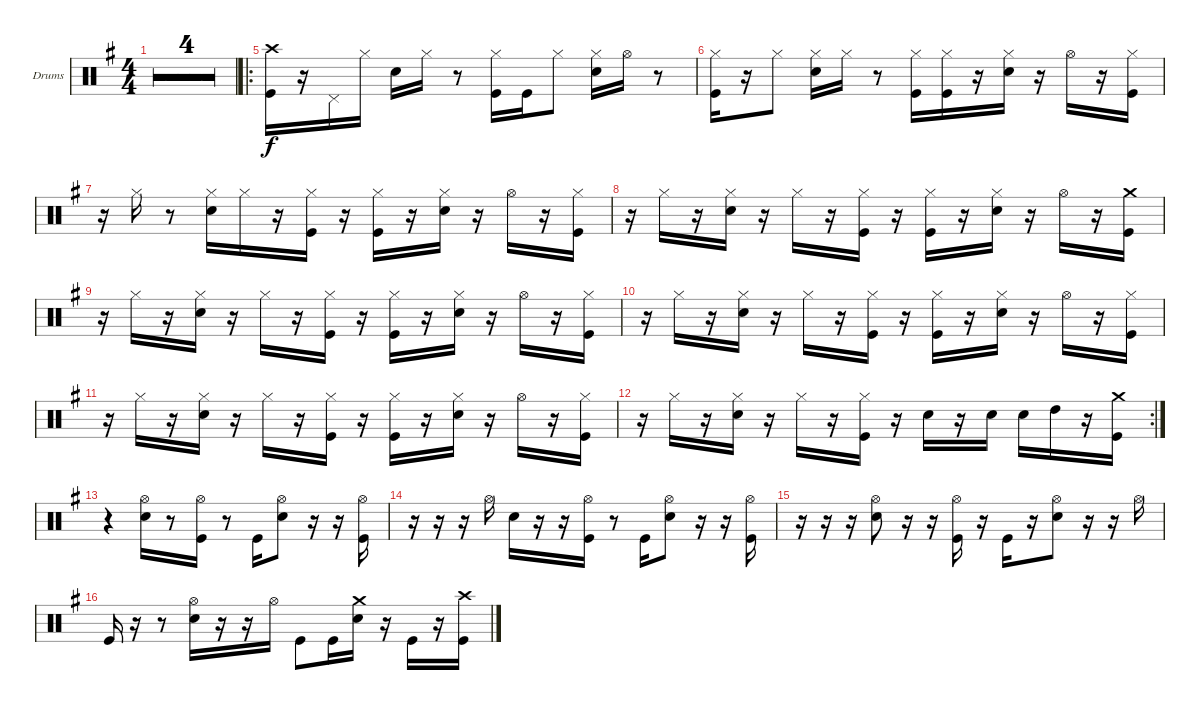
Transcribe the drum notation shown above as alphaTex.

\bracketExtendMode groupsimilarinstruments
\firstSystemTrackNameOrientation horizontal
\otherSystemsTrackNameOrientation horizontal
\track ("Drumkit" "Drums") {multiBarRest instrument percussion}
\staff {score}
\articulation defaults
\ts (4 4)
\beaming (8 2 2 2 2)
\tempo 120
\clef neutral
\scale
0.502183
\ks g
|
\scale
0.248908 |
\scale
0.248908 |
\scale
0.311475 |
\ro
\scale
0.377049 ("Crash high (hit)" "Kick (hit)").16 r.16 "Pedal Hi-Hat (hit)".16 "Hi-Hat (closed)".16 "Snare (hit) 2".16 "Hi-Hat (closed)".16 r.8 ("Hi-Hat (closed)" "Kick (hit)").16 "Kick (hit)".16 "Hi-Hat (closed)".8 ("Snare (hit) 2" "Hi-Hat (closed)").16 "Hi-Hat (open)".16 r.8 |
\scale
0.311475 ("Hi-Hat (closed)" "Kick (hit)").16 r.16 "Hi-Hat (closed)".8 ("Snare (hit) 2" "Hi-Hat (closed)").16 "Hi-Hat (closed)".16 r.8 ("Hi-Hat (closed)" "Kick (hit)").16 ("Hi-Hat (closed)" "Kick (hit)").16 r.16 ("Snare (hit) 2" "Hi-Hat (closed)").16 r.16 "Hi-Hat (open)".16 r.16 ("Hi-Hat (closed)" "Kick (hit)").16 |
\scale
0.333333 r.16 "Hi-Hat (closed)".16 r.8 ("Hi-Hat (closed)" "Snare (hit) 2").16 "Hi-Hat (closed)".16 r.16 ("Kick (hit)" "Hi-Hat (closed)").16 r.16 ("Hi-Hat (closed)" "Kick (hit)").16 r.16 ("Hi-Hat (closed)" "Snare (hit) 2").16 r.16 "Hi-Hat (open)".16 r.16 ("Hi-Hat (closed)" "Kick (hit)").16 |
\scale
0.333333 r.16 "Hi-Hat (closed)".16 r.16 ("Hi-Hat (closed)" "Snare (hit) 2").16 r.16 "Hi-Hat (closed)".16 r.16 ("Kick (hit)" "Hi-Hat (closed)").16 r.16 ("Kick (hit)" "Hi-Hat (closed)").16 r.16 ("Hi-Hat (closed)" "Snare (hit) 2").16 r.16 "Hi-Hat (open)".16 r.16 ("Crash medium (hit)" "Kick (hit)").16 |
\scale
0.333333 r.16 "Hi-Hat (closed)".16 r.16 ("Hi-Hat (closed)" "Snare (hit) 2").16 r.16 "Hi-Hat (closed)".16 r.16 ("Hi-Hat (closed)" "Kick (hit)").16 r.16 ("Hi-Hat (closed)" "Kick (hit)").16 r.16 ("Hi-Hat (closed)" "Snare (hit) 2").16 r.16 "Hi-Hat (open)".16 r.16 ("Hi-Hat (closed)" "Kick (hit)").16 |
\scale
0.322034 r.16 "Hi-Hat (closed)".16 r.16 ("Hi-Hat (closed)" "Snare (hit) 2").16 r.16 "Hi-Hat (closed)".16 r.16 ("Hi-Hat (closed)" "Kick (hit)").16 r.16 ("Kick (hit)" "Hi-Hat (closed)").16 r.16 ("Hi-Hat (closed)" "Snare (hit) 2").16 r.16 "Hi-Hat (open)".16 r.16 ("Hi-Hat (closed)" "Kick (hit)").16 |
\scale
0.322034 r.16 "Hi-Hat (closed)".16 r.16 ("Hi-Hat (closed)" "Snare (hit) 2").16 r.16 "Hi-Hat (closed)".16 r.16 ("Kick (hit)" "Hi-Hat (closed)").16 r.16 ("Hi-Hat (closed)" "Kick (hit)").16 r.16 ("Hi-Hat (closed)" "Snare (hit) 2").16 r.16 "Hi-Hat (open)".16 r.16 ("Hi-Hat (closed)" "Kick (hit)").16 |
\rc 2
\scale
0.355932 r.16 "Hi-Hat (closed)".16 r.16 ("Snare (hit) 2" "Hi-Hat (closed)").16 r.16 "Hi-Hat (closed)".16 r.16 ("Hi-Hat (closed)" "Kick (hit)").16 r.16 "Snare (hit) 2".16 r.16 "Snare (hit) 2".16 "Snare (hit) 2".16 "High Tom (hit)".16 r.16 ("Crash medium (hit)" "Kick (hit)").16 |
\scale
0.333333 r.4 ("Hi-Hat (open)" "Snare (hit) 2").16 r.8 ("Hi-Hat (open)" "Kick (hit)").16 r.8 "Kick (hit)".16 ("Hi-Hat (open)" "Snare (hit) 2").8 r.16 r.16 ("Kick (hit)" "Hi-Hat (open)").16 |
\scale
0.333333 r.16 r.16 r.16 "Hi-Hat (open)".16 "Snare (hit) 2".16 r.16 r.16 ("Hi-Hat (open)" "Kick (hit)").16 r.8 "Kick (hit)".16 ("Snare (hit) 2" "Hi-Hat (open)").8 r.16 r.16 ("Kick (hit)" "Hi-Hat (open)").16 |
\scale
0.333333 r.16 r.16 r.16 ("Snare (hit) 2" "Hi-Hat (open)").8 r.16 r.16 ("Hi-Hat (open)" "Kick (hit)").16 r.16 "Kick (hit)".16 r.16 ("Snare (hit) 2" "Hi-Hat (open)").8 r.16 r.16 "Hi-Hat (open)".16 |
\scale
0.333333 "Kick (hit)".16 r.16 r.8 ("Hi-Hat (open)" "Snare (hit) 2").16 r.16 r.16 "Hi-Hat (open)".16 "Kick (hit)".8 "Kick (hit)".16 ("Crash medium (hit)" "Snare (hit) 2").16 r.16 "Kick (hit)".16 r.16 ("Crash high (hit)" "Kick (hit)").16
